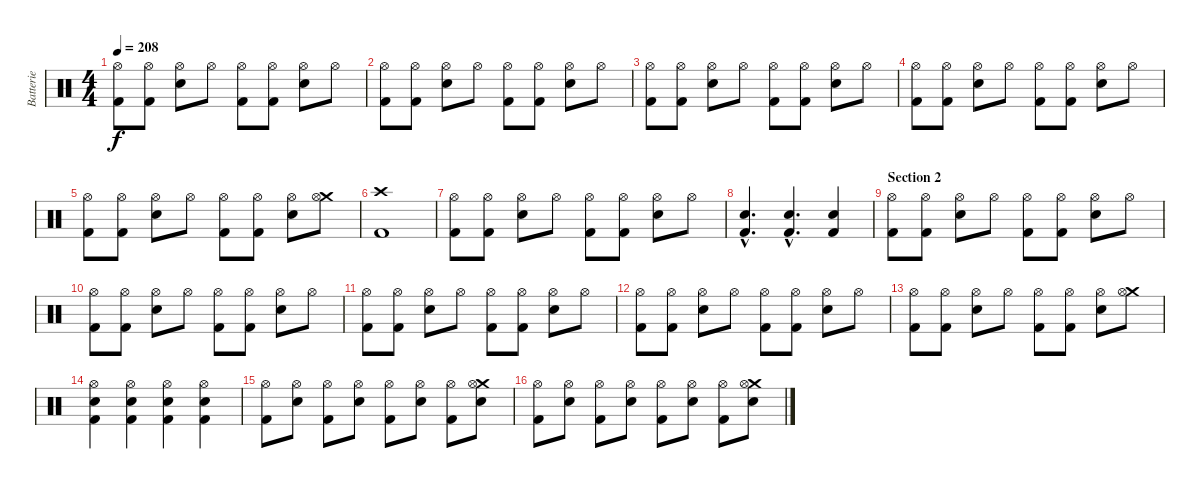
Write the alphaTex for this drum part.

\track ("Batterie" "Batterie") {instrument percussion}
\staff {score}
\articulation defaults
\ts (4 4)
\tempo 208
\clef neutral
\ks c
("Hi-Hat (open)" "Kick (hit) 2").8{dy f} ("Hi-Hat (open)" "Kick (hit) 2").8 ("Hi-Hat (open)" "Snare (hit) 2").8 "Hi-Hat (open)".8 ("Hi-Hat (open)" "Kick (hit) 2").8 ("Hi-Hat (open)" "Kick (hit) 2").8 ("Hi-Hat (open)" "Snare (hit) 2").8 "Hi-Hat (open)".8 |
("Hi-Hat (open)" "Kick (hit) 2").8 ("Hi-Hat (open)" "Kick (hit) 2").8 ("Hi-Hat (open)" "Snare (hit) 2").8 "Hi-Hat (open)".8 ("Hi-Hat (open)" "Kick (hit) 2").8 ("Hi-Hat (open)" "Kick (hit) 2").8 ("Hi-Hat (open)" "Snare (hit) 2").8 "Hi-Hat (open)".8 |
("Hi-Hat (open)" "Kick (hit) 2").8 ("Hi-Hat (open)" "Kick (hit) 2").8 ("Hi-Hat (open)" "Snare (hit) 2").8 "Hi-Hat (open)".8 ("Hi-Hat (open)" "Kick (hit) 2").8 ("Hi-Hat (open)" "Kick (hit) 2").8 ("Hi-Hat (open)" "Snare (hit) 2").8 "Hi-Hat (open)".8 |
("Hi-Hat (open)" "Kick (hit) 2").8 ("Hi-Hat (open)" "Kick (hit) 2").8 ("Hi-Hat (open)" "Snare (hit) 2").8 "Hi-Hat (open)".8 ("Hi-Hat (open)" "Kick (hit) 2").8 ("Hi-Hat (open)" "Kick (hit) 2").8 ("Hi-Hat (open)" "Snare (hit) 2").8 "Hi-Hat (open)".8 |
("Hi-Hat (open)" "Kick (hit) 2").8 ("Hi-Hat (open)" "Kick (hit) 2").8 ("Hi-Hat (open)" "Snare (hit) 2").8 "Hi-Hat (open)".8 ("Hi-Hat (open)" "Kick (hit) 2").8 ("Hi-Hat (open)" "Kick (hit) 2").8 ("Hi-Hat (open)" "Snare (hit) 2").8 ("Crash medium (hit)" "Hi-Hat (open)").8 |
("Crash high (hit)" "Kick (hit) 2").1 |
("Hi-Hat (open)" "Kick (hit) 2").8 ("Hi-Hat (open)" "Kick (hit) 2").8 ("Hi-Hat (open)" "Snare (hit) 2").8 "Hi-Hat (open)".8 ("Hi-Hat (open)" "Kick (hit) 2").8 ("Hi-Hat (open)" "Kick (hit) 2").8 ("Hi-Hat (open)" "Snare (hit) 2").8 "Hi-Hat (open)".8 |
("Snare (hit) 2"{hac} "Kick (hit) 2"{hac}).4{d} ("Snare (hit) 2"{hac} "Kick (hit) 2"{hac}).4{d} ("Snare (hit) 2" "Kick (hit) 2").4 |
\section ("" "Section 2")
("Hi-Hat (open)" "Kick (hit) 2").8 ("Hi-Hat (open)" "Kick (hit) 2").8 ("Hi-Hat (open)" "Snare (hit) 2").8 "Hi-Hat (open)".8 ("Hi-Hat (open)" "Kick (hit) 2").8 ("Hi-Hat (open)" "Kick (hit) 2").8 ("Hi-Hat (open)" "Snare (hit) 2").8 "Hi-Hat (open)".8 |
("Hi-Hat (open)" "Kick (hit) 2").8 ("Hi-Hat (open)" "Kick (hit) 2").8 ("Hi-Hat (open)" "Snare (hit) 2").8 "Hi-Hat (open)".8 ("Hi-Hat (open)" "Kick (hit) 2").8 ("Hi-Hat (open)" "Kick (hit) 2").8 ("Hi-Hat (open)" "Snare (hit) 2").8 "Hi-Hat (open)".8 |
("Hi-Hat (open)" "Kick (hit) 2").8 ("Hi-Hat (open)" "Kick (hit) 2").8 ("Hi-Hat (open)" "Snare (hit) 2").8 "Hi-Hat (open)".8 ("Hi-Hat (open)" "Kick (hit) 2").8 ("Hi-Hat (open)" "Kick (hit) 2").8 ("Hi-Hat (open)" "Snare (hit) 2").8 "Hi-Hat (open)".8 |
("Hi-Hat (open)" "Kick (hit) 2").8 ("Hi-Hat (open)" "Kick (hit) 2").8 ("Hi-Hat (open)" "Snare (hit) 2").8 "Hi-Hat (open)".8 ("Hi-Hat (open)" "Kick (hit) 2").8 ("Hi-Hat (open)" "Kick (hit) 2").8 ("Hi-Hat (open)" "Snare (hit) 2").8 "Hi-Hat (open)".8 |
("Hi-Hat (open)" "Kick (hit) 2").8 ("Hi-Hat (open)" "Kick (hit) 2").8 ("Hi-Hat (open)" "Snare (hit) 2").8 "Hi-Hat (open)".8 ("Hi-Hat (open)" "Kick (hit) 2").8 ("Hi-Hat (open)" "Kick (hit) 2").8 ("Hi-Hat (open)" "Snare (hit) 2").8 ("Crash medium (hit)" "Hi-Hat (open)").8 |
("Hi-Hat (open)" "Snare (hit) 2" "Kick (hit) 2").4 ("Hi-Hat (open)" "Snare (hit) 2" "Kick (hit) 2").4 ("Hi-Hat (open)" "Snare (hit) 2" "Kick (hit) 2").4 ("Hi-Hat (open)" "Snare (hit) 2" "Kick (hit) 2").4 |
("Hi-Hat (open)" "Kick (hit) 2").8 ("Hi-Hat (open)" "Snare (hit) 2").8 ("Hi-Hat (open)" "Kick (hit) 2").8 ("Hi-Hat (open)" "Snare (hit) 2").8 ("Hi-Hat (open)" "Kick (hit) 2").8 ("Hi-Hat (open)" "Snare (hit) 2").8 ("Hi-Hat (open)" "Kick (hit) 2").8 ("Crash medium (hit)" "Hi-Hat (open)" "Snare (hit) 2").8 |
("Hi-Hat (open)" "Kick (hit) 2").8 ("Hi-Hat (open)" "Snare (hit) 2").8 ("Hi-Hat (open)" "Kick (hit) 2").8 ("Hi-Hat (open)" "Snare (hit) 2").8 ("Hi-Hat (open)" "Kick (hit) 2").8 ("Hi-Hat (open)" "Snare (hit) 2").8 ("Hi-Hat (open)" "Kick (hit) 2").8 ("Crash medium (hit)" "Hi-Hat (open)" "Snare (hit) 2").8
